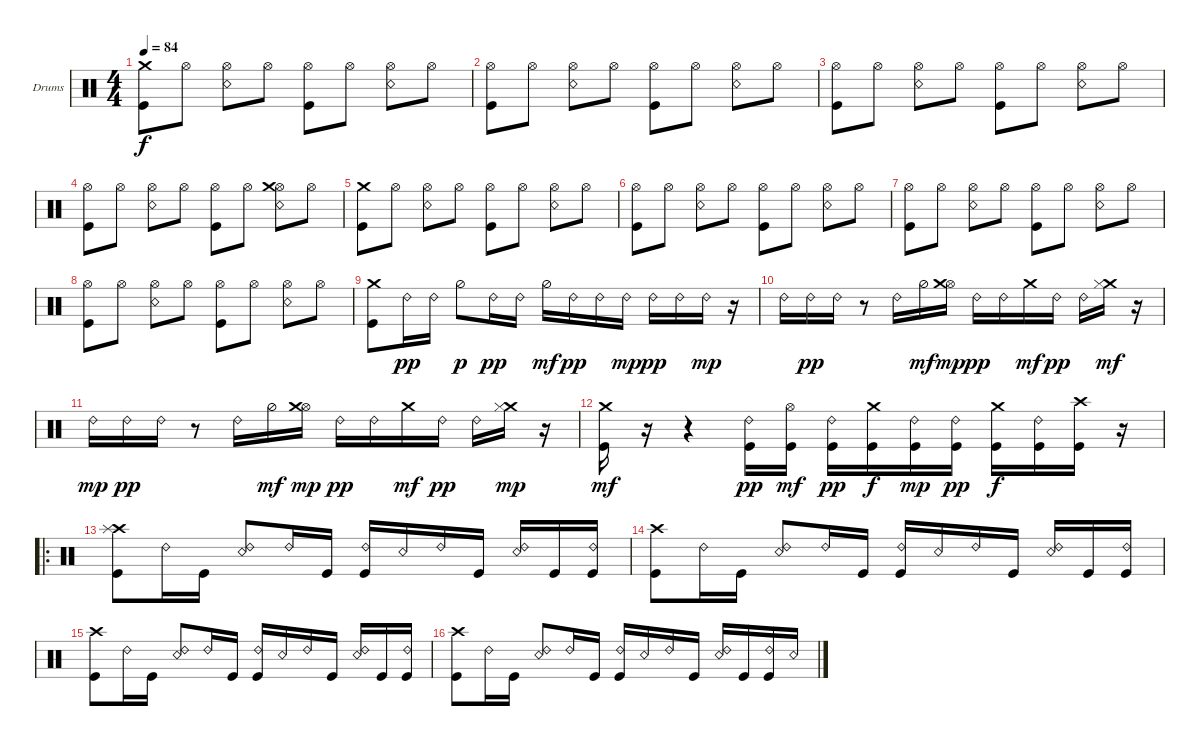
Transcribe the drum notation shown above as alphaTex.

\defaultSystemsLayout 4
\bracketExtendMode groupsimilarinstruments
\firstSystemTrackNameOrientation horizontal
\otherSystemsTrackNameOrientation horizontal
\track ("Drumkit" "Drums") {instrument percussion}
\staff {score}
\articulation defaults
\ts (4 4)
\tempo 84
\clef neutral
\scale
0.263889
\ks c
("Kick (hit)" "Crash medium (hit)").8{dy f} "Hi-Hat (open)".8 ("Snare (rim shot)" "Hi-Hat (open)").8 "Hi-Hat (open)".8 ("Hi-Hat (open)" "Kick (hit)").8 "Hi-Hat (open)".8 ("Hi-Hat (open)" "Snare (rim shot)").8 "Hi-Hat (open)".8 |
\scale
0.263889 ("Kick (hit)" "Hi-Hat (open)").8 "Hi-Hat (open)".8 ("Snare (rim shot)" "Hi-Hat (open)").8 "Hi-Hat (open)".8 ("Hi-Hat (open)" "Kick (hit)").8 "Hi-Hat (open)".8 ("Hi-Hat (open)" "Snare (rim shot)").8 "Hi-Hat (open)".8 |
\scale
0.333333 ("Kick (hit)" "Hi-Hat (open)").8 "Hi-Hat (open)".8 ("Snare (rim shot)" "Hi-Hat (open)").8 "Hi-Hat (open)".8 ("Hi-Hat (open)" "Kick (hit)").8 "Hi-Hat (open)".8 ("Hi-Hat (open)" "Snare (rim shot)").8 "Hi-Hat (open)".8 |
\scale
0.333333 ("Kick (hit)" "Hi-Hat (open)").8 "Hi-Hat (open)".8 ("Snare (rim shot)" "Hi-Hat (open)").8 "Hi-Hat (open)".8 ("Hi-Hat (open)" "Kick (hit)").8 "Hi-Hat (open)".8 ("Snare (rim shot)" "Hi-Hat (open)" "Crash medium (hit)").8 "Hi-Hat (open)".8 |
\scale
0.333333 ("Kick (hit)" "Crash medium (hit)").8 "Hi-Hat (open)".8 ("Snare (rim shot)" "Hi-Hat (open)").8 "Hi-Hat (open)".8 ("Hi-Hat (open)" "Kick (hit)").8 "Hi-Hat (open)".8 ("Hi-Hat (open)" "Snare (rim shot)").8 "Hi-Hat (open)".8 |
\scale
0.333333 ("Kick (hit)" "Hi-Hat (open)").8 "Hi-Hat (open)".8 ("Snare (rim shot)" "Hi-Hat (open)").8 "Hi-Hat (open)".8 ("Hi-Hat (open)" "Kick (hit)").8 "Hi-Hat (open)".8 ("Hi-Hat (open)" "Snare (rim shot)").8 "Hi-Hat (open)".8 |
\scale
0.333333 ("Kick (hit)" "Hi-Hat (open)").8 "Hi-Hat (open)".8 ("Snare (rim shot)" "Hi-Hat (open)").8 "Hi-Hat (open)".8 ("Hi-Hat (open)" "Kick (hit)").8 "Hi-Hat (open)".8 ("Hi-Hat (open)" "Snare (rim shot)").8 "Hi-Hat (open)".8 |
\scale
0.333333 ("Kick (hit)" "Hi-Hat (open)").8 "Hi-Hat (open)".8 ("Snare (rim shot)" "Hi-Hat (open)").8 "Hi-Hat (open)".8 ("Hi-Hat (open)" "Kick (hit)").8 "Hi-Hat (open)".8 ("Hi-Hat (open)" "Snare (rim shot)").8 "Hi-Hat (open)".8 |
\scale
0.333333 ("Kick (hit)" "Crash medium (hit)").8 "Ride (bell) 2".16{dy pp} "Ride (bell) 2".16 "Hi-Hat (half)".8{dy p} "Ride (bell) 2".16{dy pp} "Ride (bell) 2".16 "Hi-Hat (half)".16{dy mf} "Ride (bell) 2".16{dy pp} "Ride (bell) 2".16 "Ride (bell) 2".16{dy mp} "Ride (bell) 2".16{dy pp} "Ride (bell) 2".16 "Ride (bell) 2".16{dy mp} r.16 |
\scale
0.333333 "Ride (bell) 2".16 "Ride (bell) 2".16{dy pp} "Ride (bell) 2".16 r.8 "Ride (bell) 2".16 "Hi-Hat (half)".16{dy mf} ("Hi-Hat (open)" "Crash medium (hit)").16{dy mp} "Ride (bell) 2".16{dy pp} "Ride (bell) 2".16 "Crash medium (hit)".16{dy mf} "Ride (bell) 2".16{dy pp} "Ride (bell) 2".16 ("Crash medium (hit)" "Hi-Hat (closed)").16{dy mf} r.16 |
\scale
0.333333 "Ride (bell) 2".16{dy mp} "Ride (bell) 2".16{dy pp} "Ride (bell) 2".16 r.8 "Ride (bell) 2".16 "Hi-Hat (half)".16{dy mf} ("Hi-Hat (open)" "Crash medium (hit)").16{dy mp} "Ride (bell) 2".16{dy pp} "Ride (bell) 2".16 "Crash medium (hit)".16{dy mf} "Ride (bell) 2".16{dy pp} "Ride (bell) 2".16 ("Crash medium (hit)" "Hi-Hat (closed)").16{dy mp} r.16 |
\scale
0.311475 ("Kick (hit)" "Crash medium (hit)").16{dy mf} r.16 r.4 ("Ride (bell) 2" "Kick (hit)").16{dy pp} ("Hi-Hat (open)" "Kick (hit)").16{dy mf} ("Ride (bell) 2" "Kick (hit)").16{dy pp} ("Crash medium (hit)" "Kick (hit)").16{dy f} ("Ride (bell) 2" "Kick (hit)").16{dy mp} ("Ride (bell) 2" "Kick (hit)").16{dy pp} ("Crash medium (hit)" "Kick (hit)").16{dy f} ("Ride (bell) 2" "Kick (hit)").16 ("Crash high (hit)" "Kick (hit)").16 r.16 |
\ro
\scale
0.377049 ("Kick (hit)" "Crash high (hit)" "Splash (hit)").8 "Ride (bell) 2".16 "Kick (hit)".16 ("Snare (rim shot)" "Ride (bell) 2").8 "Ride (bell) 2".16 "Kick (hit)".16 ("Kick (hit)" "Ride (bell) 2").16 "Snare (rim shot)".16 "Ride (bell) 2".16 "Kick (hit)".16 ("Snare (rim shot)" "Ride (bell) 2").16 "Kick (hit)".16 ("Kick (hit)" "Ride (bell) 2").16 |
\scale
0.311475 ("Kick (hit)" "Crash high (hit)").8 "Ride (bell) 2".16 "Kick (hit)".16 ("Snare (rim shot)" "Ride (bell) 2").8 "Ride (bell) 2".16 "Kick (hit)".16 ("Kick (hit)" "Ride (bell) 2").16 "Snare (rim shot)".16 "Ride (bell) 2".16 "Kick (hit)".16 ("Snare (rim shot)" "Ride (bell) 2").16 "Kick (hit)".16 ("Kick (hit)" "Ride (bell) 2").16 |
\scale
0.333333 ("Kick (hit)" "Crash high (hit)").8 "Ride (bell) 2".16 "Kick (hit)".16 ("Snare (rim shot)" "Ride (bell) 2").8 "Ride (bell) 2".16 "Kick (hit)".16 ("Kick (hit)" "Ride (bell) 2").16 "Snare (rim shot)".16 "Ride (bell) 2".16 "Kick (hit)".16 ("Snare (rim shot)" "Ride (bell) 2").16 "Kick (hit)".16 ("Kick (hit)" "Ride (bell) 2").16 |
\scale
0.333333 ("Kick (hit)" "Crash high (hit)").8 "Ride (bell) 2".16 "Kick (hit)".16 ("Snare (rim shot)" "Ride (bell) 2").8 "Ride (bell) 2".16 "Kick (hit)".16 ("Kick (hit)" "Ride (bell) 2").16 "Snare (rim shot)".16 "Ride (bell) 2".16 "Kick (hit)".16 ("Snare (rim shot)" "Ride (bell) 2").16 "Kick (hit)".16 ("Kick (hit)" "Ride (bell) 2").16 "Snare (rim shot)".16
